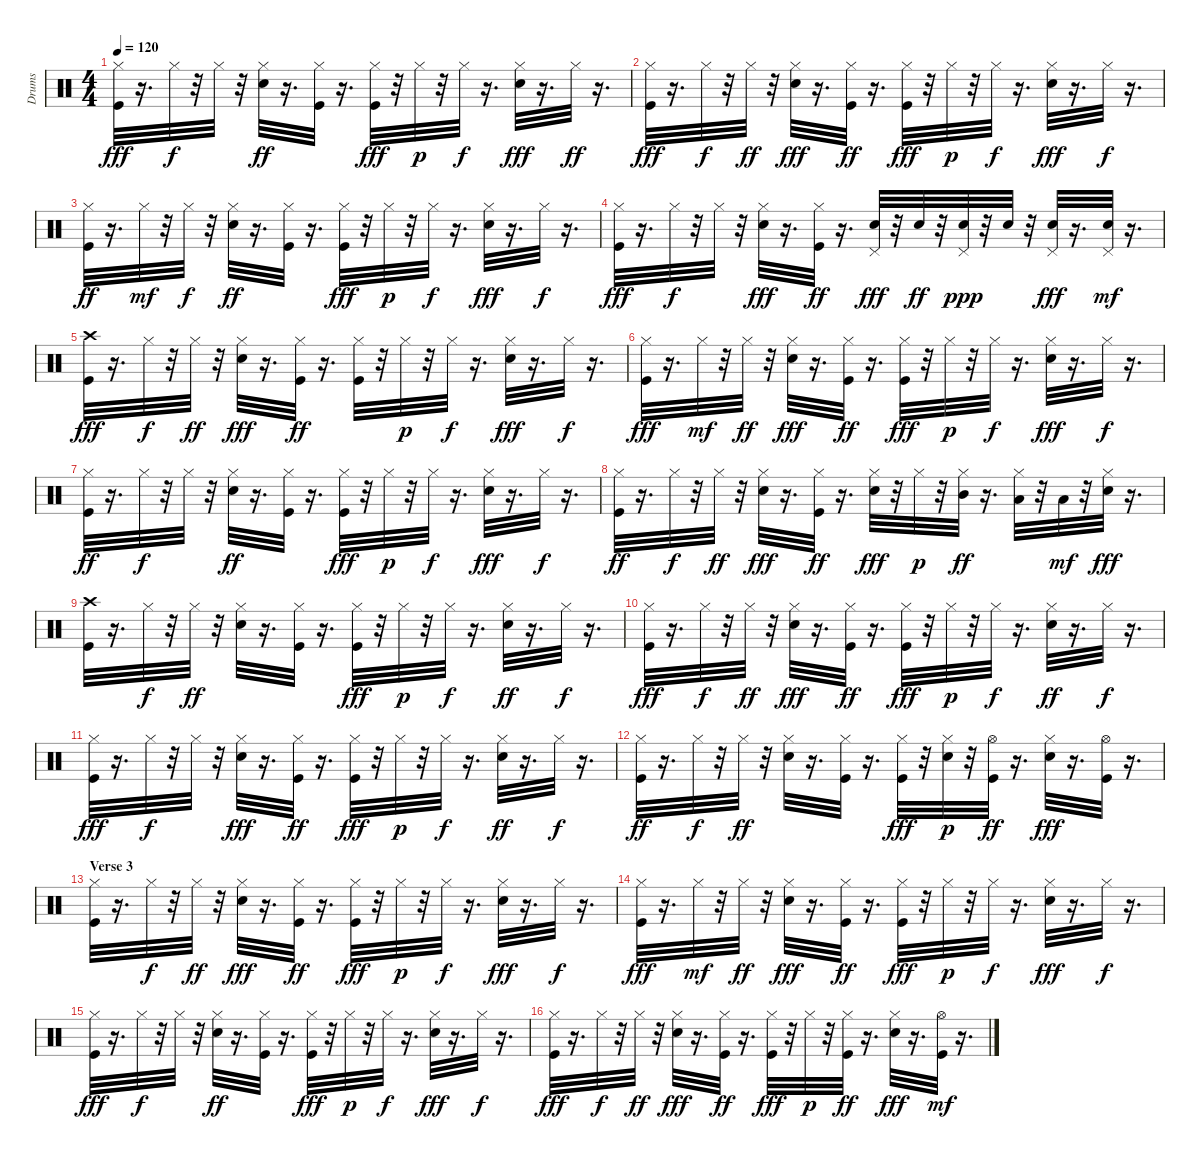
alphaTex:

\track ("Drums" "Drums") {instrument percussion}
\staff {score}
\articulation defaults
\ts (4 4)
\tempo 120
\clef neutral
\ks c
("Hi-Hat (closed)" "Kick (hit)").32{dy fff} r.16{d} "Hi-Hat (closed)".32{dy f} r.32 "Hi-Hat (closed)".32 r.32 ("Electric Snare (hit)" "Hi-Hat (closed)").32{dy ff} r.16{d} ("Hi-Hat (closed)" "Kick (hit)").32 r.16{d} ("Hi-Hat (closed)" "Kick (hit)").32{dy fff} r.32 "Hi-Hat (closed)".32{dy p} r.32 "Hi-Hat (closed)".32{dy f} r.16{d} ("Hi-Hat (closed)" "Electric Snare (hit)").32{dy fff} r.16{d} "Hi-Hat (closed)".32{dy ff} r.16{d} |
("Hi-Hat (closed)" "Kick (hit)").32{dy fff} r.16{d} "Hi-Hat (closed)".32{dy f} r.32 "Hi-Hat (closed)".32{dy ff} r.32 ("Hi-Hat (closed)" "Electric Snare (hit)").32{dy fff} r.16{d} ("Hi-Hat (closed)" "Kick (hit)").32{dy ff} r.16{d} ("Hi-Hat (closed)" "Kick (hit)").32{dy fff} r.32 "Hi-Hat (closed)".32{dy p} r.32 "Hi-Hat (closed)".32{dy f} r.16{d} ("Electric Snare (hit)" "Hi-Hat (closed)").32{dy fff} r.16{d} "Hi-Hat (closed)".32{dy f} r.16{d} |
("Kick (hit)" "Hi-Hat (closed)").32{dy ff} r.16{d} "Hi-Hat (closed)".32{dy mf} r.32 "Hi-Hat (closed)".32{dy f} r.32 ("Electric Snare (hit)" "Hi-Hat (closed)").32{dy ff} r.16{d} ("Hi-Hat (closed)" "Kick (hit)").32 r.16{d} ("Kick (hit)" "Hi-Hat (closed)").32{dy fff} r.32 "Hi-Hat (closed)".32{dy p} r.32 "Hi-Hat (closed)".32{dy f} r.16{d} ("Electric Snare (hit)" "Hi-Hat (closed)").32{dy fff} r.16{d} "Hi-Hat (closed)".32{dy f} r.16{d} |
("Hi-Hat (closed)" "Kick (hit)").32{dy fff} r.16{d} "Hi-Hat (closed)".32{dy f} r.32 "Hi-Hat (closed)".32 r.32 ("Hi-Hat (closed)" "Electric Snare (hit)").32{dy fff} r.16{d} ("Kick (hit)" "Hi-Hat (closed)").32{dy ff} r.16{d} ("Electric Snare (hit)" "Pedal Hi-Hat (hit)").32{dy fff} r.32 "Electric Snare (hit)".32{dy ff} r.32 ("Electric Snare (hit)" "Pedal Hi-Hat (hit)").32{dy ppp} r.32 "Electric Snare (hit)".32 r.32 ("Pedal Hi-Hat (hit)" "Electric Snare (hit)").32{dy fff} r.16{d} ("Electric Snare (hit)" "Pedal Hi-Hat (hit)").32{dy mf} r.16{d} |
("Crash high (hit)" "Kick (hit)").32{dy fff} r.16{d} "Hi-Hat (closed)".32{dy f} r.32 "Hi-Hat (closed)".32{dy ff} r.32 ("Hi-Hat (closed)" "Electric Snare (hit)").32{dy fff} r.16{d} ("Hi-Hat (closed)" "Kick (hit)").32{dy ff} r.16{d} ("Kick (hit)" "Hi-Hat (closed)").32 r.32 "Hi-Hat (closed)".32{dy p} r.32 "Hi-Hat (closed)".32{dy f} r.16{d} ("Hi-Hat (closed)" "Electric Snare (hit)").32{dy fff} r.16{d} "Hi-Hat (closed)".32{dy f} r.16{d} |
("Hi-Hat (closed)" "Kick (hit)").32{dy fff} r.16{d} "Hi-Hat (closed)".32{dy mf} r.32 "Hi-Hat (closed)".32{dy ff} r.32 ("Hi-Hat (closed)" "Electric Snare (hit)").32{dy fff} r.16{d} ("Hi-Hat (closed)" "Kick (hit)").32{dy ff} r.16{d} ("Kick (hit)" "Hi-Hat (closed)").32{dy fff} r.32 "Hi-Hat (closed)".32{dy p} r.32 "Hi-Hat (closed)".32{dy f} r.16{d} ("Hi-Hat (closed)" "Electric Snare (hit)").32{dy fff} r.16{d} "Hi-Hat (closed)".32{dy f} r.16{d} |
("Kick (hit)" "Hi-Hat (closed)").32{dy ff} r.16{d} "Hi-Hat (closed)".32{dy f} r.32 "Hi-Hat (closed)".32 r.32 ("Electric Snare (hit)" "Hi-Hat (closed)").32{dy ff} r.16{d} ("Kick (hit)" "Hi-Hat (closed)").32 r.16{d} ("Kick (hit)" "Hi-Hat (closed)").32{dy fff} r.32 "Hi-Hat (closed)".32{dy p} r.32 "Hi-Hat (closed)".32{dy f} r.16{d} ("Hi-Hat (closed)" "Electric Snare (hit)").32{dy fff} r.16{d} "Hi-Hat (closed)".32{dy f} r.16{d} |
("Kick (hit)" "Hi-Hat (closed)").32{dy ff} r.16{d} "Hi-Hat (closed)".32{dy f} r.32 "Hi-Hat (closed)".32{dy ff} r.32 ("Hi-Hat (closed)" "Electric Snare (hit)").32{dy fff} r.16{d} ("Hi-Hat (closed)" "Kick (hit)").32{dy ff} r.16{d} ("Electric Snare (hit)" "Hi-Hat (closed)").32{dy fff} r.32 "Hi-Hat (closed)".32{dy p} r.32 ("Mid Tom (hit)" "Hi-Hat (closed)").32{dy ff} r.16{d} ("Hi-Hat (closed)" "Low Tom (hit)").32 r.32 "Low Tom (hit)".32{dy mf} r.32 ("Hi-Hat (closed)" "Electric Snare (hit)").32{dy fff} r.16{d} |
("Crash high (hit)" "Kick (hit)").32 r.16{d} "Hi-Hat (closed)".32{dy f} r.32 "Hi-Hat (closed)".32{dy ff} r.32 ("Electric Snare (hit)" "Hi-Hat (closed)").32 r.16{d} ("Hi-Hat (closed)" "Kick (hit)").32 r.16{d} ("Hi-Hat (closed)" "Kick (hit)").32{dy fff} r.32 "Hi-Hat (closed)".32{dy p} r.32 "Hi-Hat (closed)".32{dy f} r.16{d} ("Electric Snare (hit)" "Hi-Hat (closed)").32{dy ff} r.16{d} "Hi-Hat (closed)".32{dy f} r.16{d} |
("Hi-Hat (closed)" "Kick (hit)").32{dy fff} r.16{d} "Hi-Hat (closed)".32{dy f} r.32 "Hi-Hat (closed)".32{dy ff} r.32 ("Hi-Hat (closed)" "Electric Snare (hit)").32{dy fff} r.16{d} ("Kick (hit)" "Hi-Hat (closed)").32{dy ff} r.16{d} ("Hi-Hat (closed)" "Kick (hit)").32{dy fff} r.32 "Hi-Hat (closed)".32{dy p} r.32 "Hi-Hat (closed)".32{dy f} r.16{d} ("Electric Snare (hit)" "Hi-Hat (closed)").32{dy ff} r.16{d} "Hi-Hat (closed)".32{dy f} r.16{d} |
("Hi-Hat (closed)" "Kick (hit)").32{dy fff} r.16{d} "Hi-Hat (closed)".32{dy f} r.32 "Hi-Hat (closed)".32 r.32 ("Hi-Hat (closed)" "Electric Snare (hit)").32{dy fff} r.16{d} ("Kick (hit)" "Hi-Hat (closed)").32{dy ff} r.16{d} ("Kick (hit)" "Hi-Hat (closed)").32{dy fff} r.32 "Hi-Hat (closed)".32{dy p} r.32 "Hi-Hat (closed)".32{dy f} r.16{d} ("Electric Snare (hit)" "Hi-Hat (closed)").32{dy ff} r.16{d} "Hi-Hat (closed)".32{dy f} r.16{d} |
("Kick (hit)" "Hi-Hat (closed)").32{dy ff} r.16{d} "Hi-Hat (closed)".32{dy f} r.32 "Hi-Hat (closed)".32{dy ff} r.32 ("Electric Snare (hit)" "Hi-Hat (closed)").32 r.16{d} ("Kick (hit)" "Hi-Hat (closed)").32 r.16{d} ("Kick (hit)" "Hi-Hat (closed)").32{dy fff} r.32 ("Electric Snare (hit)" "Hi-Hat (closed)").32{dy p} r.32 ("Hi-Hat (open)" "Kick (hit)").32{dy ff} r.16{d} ("Electric Snare (hit)" "Hi-Hat (closed)").32{dy fff} r.16{d} ("Hi-Hat (open)" "Kick (hit)").32 r.16{d} |
\section ("" "Verse 3")
("Hi-Hat (closed)" "Kick (hit)").32 r.16{d} "Hi-Hat (closed)".32{dy f} r.32 "Hi-Hat (closed)".32{dy ff} r.32 ("Hi-Hat (closed)" "Electric Snare (hit)").32{dy fff} r.16{d} ("Hi-Hat (closed)" "Kick (hit)").32{dy ff} r.16{d} ("Hi-Hat (closed)" "Kick (hit)").32{dy fff} r.32 "Hi-Hat (closed)".32{dy p} r.32 "Hi-Hat (closed)".32{dy f} r.16{d} ("Hi-Hat (closed)" "Electric Snare (hit)").32{dy fff} r.16{d} "Hi-Hat (closed)".32{dy f} r.16{d} |
("Hi-Hat (closed)" "Kick (hit)").32{dy fff} r.16{d} "Hi-Hat (closed)".32{dy mf} r.32 "Hi-Hat (closed)".32{dy ff} r.32 ("Hi-Hat (closed)" "Electric Snare (hit)").32{dy fff} r.16{d} ("Hi-Hat (closed)" "Kick (hit)").32{dy ff} r.16{d} ("Hi-Hat (closed)" "Kick (hit)").32{dy fff} r.32 "Hi-Hat (closed)".32{dy p} r.32 "Hi-Hat (closed)".32{dy f} r.16{d} ("Hi-Hat (closed)" "Electric Snare (hit)").32{dy fff} r.16{d} "Hi-Hat (closed)".32{dy f} r.16{d} |
("Hi-Hat (closed)" "Kick (hit)").32{dy fff} r.16{d} "Hi-Hat (closed)".32{dy f} r.32 "Hi-Hat (closed)".32 r.32 ("Electric Snare (hit)" "Hi-Hat (closed)").32{dy ff} r.16{d} ("Hi-Hat (closed)" "Kick (hit)").32 r.16{d} ("Hi-Hat (closed)" "Kick (hit)").32{dy fff} r.32 "Hi-Hat (closed)".32{dy p} r.32 "Hi-Hat (closed)".32{dy f} r.16{d} ("Hi-Hat (closed)" "Electric Snare (hit)").32{dy fff} r.16{d} "Hi-Hat (closed)".32{dy f} r.16{d} |
("Hi-Hat (closed)" "Kick (hit)").32{dy fff} r.16{d} "Hi-Hat (closed)".32{dy f} r.32 "Hi-Hat (closed)".32{dy ff} r.32 ("Hi-Hat (closed)" "Electric Snare (hit)").32{dy fff} r.16{d} ("Kick (hit)" "Hi-Hat (closed)").32{dy ff} r.16{d} ("Hi-Hat (closed)" "Kick (hit)").32{dy fff} r.32 "Hi-Hat (closed)".32{dy p} r.32 ("Kick (hit)" "Hi-Hat (closed)").32{dy ff} r.16{d} ("Electric Snare (hit)" "Hi-Hat (closed)").32{dy fff} r.16{d} ("Kick (hit)" "Hi-Hat (open)").32{dy mf} r.16{d}
